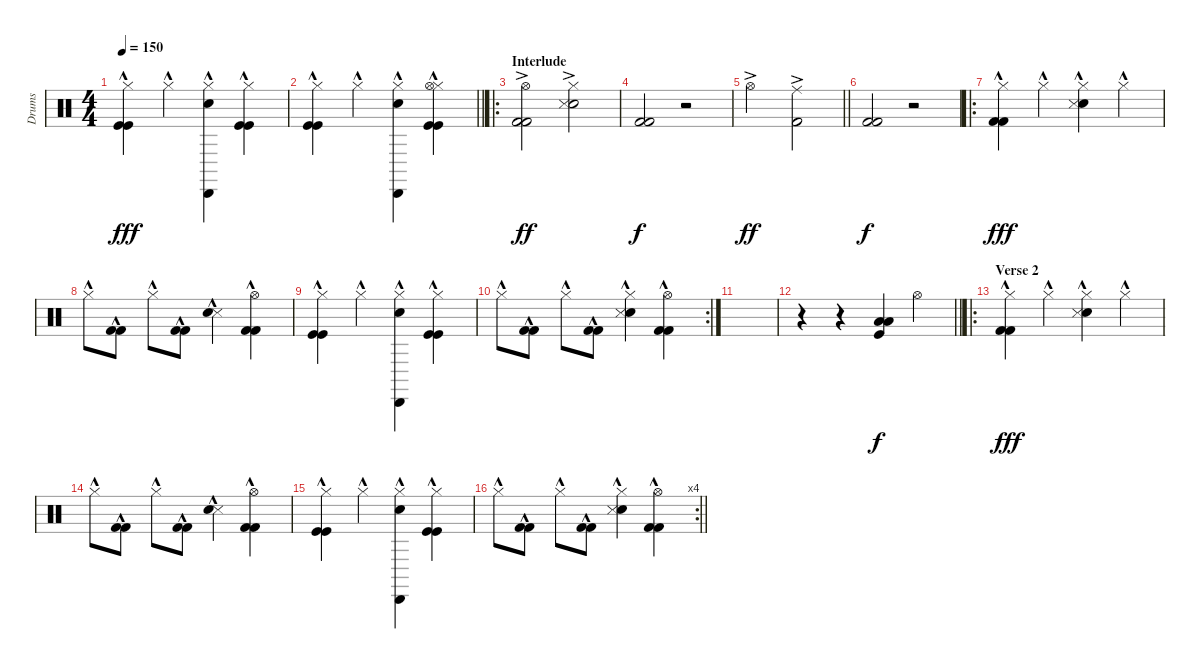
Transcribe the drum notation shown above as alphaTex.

\track ("Drums" "Drums") {instrument percussion}
\staff {score}
\articulation defaults
\ts (4 4)
\tempo 150
\clef neutral
\ks c
("Hi-Hat (closed)"{hac} "Kick (hit)"{hac} "Kick (hit)"{hac}).4{dy fff} "Hi-Hat (closed)"{hac}.4 ("Hi-Hat (closed)"{hac} "Cabasa (hit)"{hac} "Electric Snare (hit)"{hac}).4 ("Hi-Hat (closed)"{hac} "Kick (hit)"{hac} "Kick (hit)"{hac}).4 |
\barLineRight lightlight
("Hi-Hat (closed)"{hac} "Kick (hit)"{hac} "Kick (hit)"{hac}).4 "Hi-Hat (closed)"{hac}.4 ("Hi-Hat (closed)"{hac} "Cabasa (hit)"{hac} "Electric Snare (hit)"{hac}).4 ("Hi-Hat (closed)"{hac} "Kick (hit)"{hac} "Kick (hit)"{hac} "Hi-Hat (open)"{hac}).4 |
\ro
\section ("" "Interlude")
("Hi-Hat (open)"{ac} "Kick (hit) 2"{ac} "Kick (hit) 2"{ac}).2{dy ff} ("Electric Snare (hit)"{ac} "Snare (side stick) 3"{ac} "Hi-Hat (closed)").2 |
("Kick (hit) 2" "Kick (hit) 2").2{dy f} r.2 |
\barLineRight lightlight "Hi-Hat (open)"{ac}.2{dy ff}
("Ride (middle)"{ac} "Kick (hit) 2"{ac}).2 |
("Kick (hit) 2" "Kick (hit) 2").2{dy f} r.2 |
\ro
("Kick (hit) 2"{hac} "Hi-Hat (closed)"{hac} "Kick (hit) 2"{hac}).4{dy fff} "Hi-Hat (closed)"{hac}.4 ("Electric Snare (hit)"{hac} "Hi-Hat (closed)"{hac} "Snare (side stick) 3"{hac}).4 "Hi-Hat (closed)"{hac}.4 |
"Hi-Hat (closed)"{hac}.8 ("Kick (hit) 2"{hac} "Kick (hit) 2"{hac}).8 "Hi-Hat (closed)"{hac}.8 ("Kick (hit) 2"{hac} "Kick (hit) 2"{hac}).8 ("Snare (side stick) 3"{hac} "Electric Snare (hit)"{hac}).4 ("Kick (hit) 2"{hac} "Hi-Hat (open)"{hac} "Kick (hit) 2"{hac}).4 |
("Hi-Hat (closed)"{hac} "Kick (hit)"{hac} "Kick (hit)"{hac}).4 "Hi-Hat (closed)"{hac}.4 ("Hi-Hat (closed)"{hac} "Cabasa (hit)"{hac} "Electric Snare (hit)"{hac}).4 ("Hi-Hat (closed)"{hac} "Kick (hit)"{hac} "Kick (hit)"{hac}).4 |
\rc 2 "Hi-Hat (closed)"{hac}.8
("Kick (hit) 2"{hac} "Kick (hit) 2"{hac}).8 "Hi-Hat (closed)"{hac}.8 ("Kick (hit) 2"{hac} "Kick (hit) 2"{hac}).8 ("Electric Snare (hit)"{hac} "Snare (side stick) 3"{hac} "Hi-Hat (closed)").4 ("Hi-Hat (open)"{hac} "Kick (hit) 2"{hac} "Kick (hit) 2"{hac}).4 |
|
\barLineRight lightlight
r.4 r.4 ("Kick (hit)" "Low Floor Tom (hit)" "Low Floor Tom (hit)").4{dy f} "Hi-Hat (open)".4 |
\ro
\section ("" "Verse 2")
("Kick (hit) 2"{hac} "Hi-Hat (closed)"{hac} "Kick (hit) 2"{hac}).4{dy fff} "Hi-Hat (closed)"{hac}.4 ("Electric Snare (hit)"{hac} "Hi-Hat (closed)"{hac} "Snare (side stick) 3"{hac}).4 "Hi-Hat (closed)"{hac}.4 |
"Hi-Hat (closed)"{hac}.8 ("Kick (hit) 2"{hac} "Kick (hit) 2"{hac}).8 "Hi-Hat (closed)"{hac}.8 ("Kick (hit) 2"{hac} "Kick (hit) 2"{hac}).8 ("Snare (side stick) 3"{hac} "Electric Snare (hit)"{hac}).4 ("Kick (hit) 2"{hac} "Hi-Hat (open)"{hac} "Kick (hit) 2"{hac}).4 |
("Hi-Hat (closed)"{hac} "Kick (hit)"{hac} "Kick (hit)"{hac}).4 "Hi-Hat (closed)"{hac}.4 ("Hi-Hat (closed)"{hac} "Cabasa (hit)"{hac} "Electric Snare (hit)"{hac}).4 ("Hi-Hat (closed)"{hac} "Kick (hit)"{hac} "Kick (hit)"{hac}).4 |
\rc 4
\barLineRight lightlight "Hi-Hat (closed)"{hac}.8
("Kick (hit) 2"{hac} "Kick (hit) 2"{hac}).8 "Hi-Hat (closed)"{hac}.8 ("Kick (hit) 2"{hac} "Kick (hit) 2"{hac}).8 ("Electric Snare (hit)"{hac} "Snare (side stick) 3"{hac} "Hi-Hat (closed)").4 ("Kick (hit) 2"{hac} "Kick (hit) 2"{hac} "Hi-Hat (open)").4
